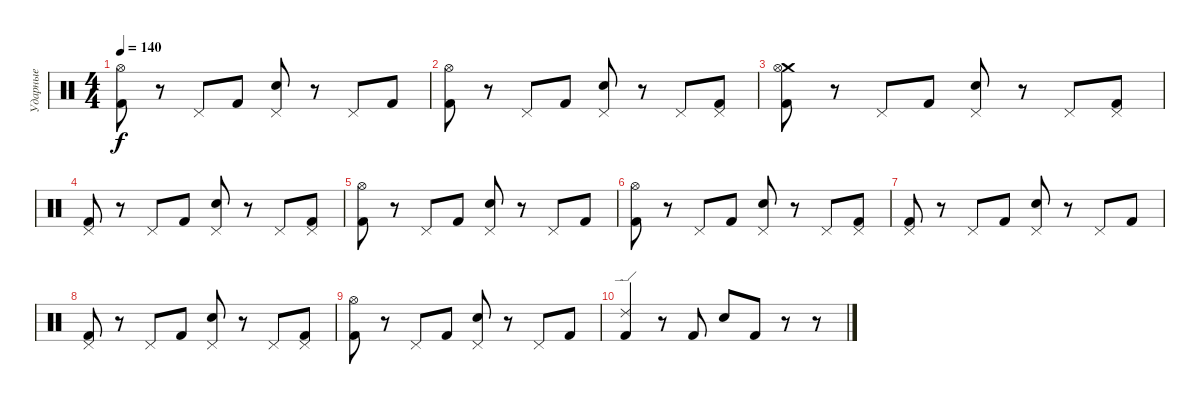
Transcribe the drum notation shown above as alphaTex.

\track ("Ударные" "Ударные") {instrument percussion}
\staff {score}
\articulation defaults
\ts (4 4)
\tempo 140
\clef neutral
\ks c
("Hi-Hat (open)" "Kick (hit) 2").8{dy f} r.8 "Pedal Hi-Hat (hit)".8 "Kick (hit) 2".8 ("Pedal Hi-Hat (hit)" "Snare (hit) 2").8 r.8 "Pedal Hi-Hat (hit)".8 "Kick (hit) 2".8 |
("Hi-Hat (open)" "Kick (hit) 2").8 r.8 "Pedal Hi-Hat (hit)".8 "Kick (hit) 2".8 ("Pedal Hi-Hat (hit)" "Snare (hit) 2").8 r.8 "Pedal Hi-Hat (hit)".8 ("Pedal Hi-Hat (hit)" "Kick (hit) 2").8 |
("Crash medium (hit)" "Hi-Hat (open)" "Kick (hit) 2").8 r.8 "Pedal Hi-Hat (hit)".8 "Kick (hit) 2".8 ("Pedal Hi-Hat (hit)" "Snare (hit) 2").8 r.8 "Pedal Hi-Hat (hit)".8 ("Pedal Hi-Hat (hit)" "Kick (hit) 2").8 |
("Pedal Hi-Hat (hit)" "Kick (hit) 2").8 r.8 "Pedal Hi-Hat (hit)".8 "Kick (hit) 2".8 ("Pedal Hi-Hat (hit)" "Snare (hit) 2").8 r.8 "Pedal Hi-Hat (hit)".8 ("Pedal Hi-Hat (hit)" "Kick (hit) 2").8 |
("Hi-Hat (open)" "Kick (hit) 2").8 r.8 "Pedal Hi-Hat (hit)".8 "Kick (hit) 2".8 ("Pedal Hi-Hat (hit)" "Snare (hit) 2").8 r.8 "Pedal Hi-Hat (hit)".8 "Kick (hit) 2".8 |
("Hi-Hat (open)" "Kick (hit) 2").8 r.8 "Pedal Hi-Hat (hit)".8 "Kick (hit) 2".8 ("Pedal Hi-Hat (hit)" "Snare (hit) 2").8 r.8 "Pedal Hi-Hat (hit)".8 ("Pedal Hi-Hat (hit)" "Kick (hit) 2").8 |
("Pedal Hi-Hat (hit)" "Kick (hit) 2").8 r.8 "Pedal Hi-Hat (hit)".8 "Kick (hit) 2".8 ("Pedal Hi-Hat (hit)" "Snare (hit) 2").8 r.8 "Pedal Hi-Hat (hit)".8 "Kick (hit) 2".8 |
("Pedal Hi-Hat (hit)" "Kick (hit) 2").8 r.8 "Pedal Hi-Hat (hit)".8 "Kick (hit) 2".8 ("Pedal Hi-Hat (hit)" "Snare (hit) 2").8 r.8 "Pedal Hi-Hat (hit)".8 ("Pedal Hi-Hat (hit)" "Kick (hit) 2").8 |
("Hi-Hat (open)" "Kick (hit) 2").8 r.8 "Pedal Hi-Hat (hit)".8 "Kick (hit) 2".8 ("Pedal Hi-Hat (hit)" "Snare (hit) 2").8 r.8 "Pedal Hi-Hat (hit)".8 "Kick (hit) 2".8 |
("Ride (edge) 2" "Kick (hit) 2").4 r.8 "Kick (hit) 2".8 "Snare (hit) 2".8 "Kick (hit) 2".8 r.8 r.8
